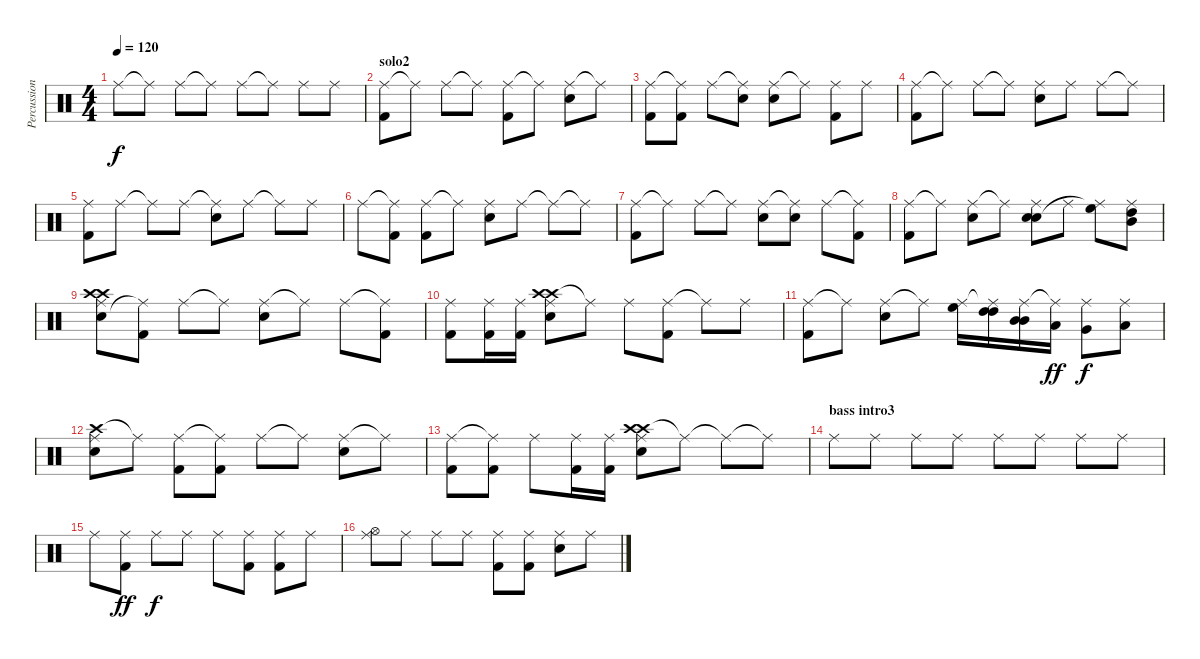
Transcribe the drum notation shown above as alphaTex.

\track ("Percussioni" "Percussion") {instrument percussion}
\staff {score}
\articulation defaults
\ts (4 4)
\tempo 120
\clef neutral
\ks c "Ride (middle)".8{dy f} "Ride (middle)"{t}.8 "Ride (middle)".8 "Ride (middle)"{t}.8 "Ride (middle)".8 "Ride (middle)"{t}.8 "Ride (middle)".8 "Ride (middle)".8
|
\section ("" "solo2")
("Ride (middle)" "Kick (hit) 2").8 "Ride (middle)"{t}.8 "Ride (middle)".8 "Ride (middle)"{t}.8 ("Ride (middle)" "Kick (hit) 2").8 "Ride (middle)"{t}.8 ("Ride (middle)" "Electric Snare (hit)").8 "Ride (middle)"{t}.8 |
("Ride (middle)" "Kick (hit) 2").8 ("Ride (middle)"{t} "Kick (hit) 2").8 "Ride (middle)".8 ("Ride (middle)"{t} "Electric Snare (hit)").8 ("Ride (middle)" "Electric Snare (hit)").8 "Ride (middle)"{t}.8 ("Ride (middle)" "Kick (hit) 2").8 "Ride (middle)".8 |
("Ride (middle)" "Kick (hit) 2").8 "Ride (middle)"{t}.8 "Ride (middle)".8 "Ride (middle)"{t}.8 ("Ride (middle)" "Electric Snare (hit)").8 "Ride (middle)".8 "Ride (middle)".8 "Ride (middle)"{t}.8 |
("Ride (middle)" "Kick (hit) 2").8 "Ride (middle)".8 "Ride (middle)"{t}.8 "Ride (middle)".8 ("Ride (middle)"{t} "Electric Snare (hit)").8 "Ride (middle)".8 "Ride (middle)"{t}.8 "Ride (middle)".8 |
"Ride (middle)".8 ("Ride (middle)"{t} "Kick (hit) 2").8 ("Ride (middle)" "Kick (hit) 2").8 "Ride (middle)"{t}.8 ("Ride (middle)" "Electric Snare (hit)").8 "Ride (middle)".8 "Ride (middle)"{t}.8 "Ride (middle)"{t}.8 |
("Ride (middle)" "Kick (hit) 2").8 "Ride (middle)"{t}.8 "Ride (middle)".8 "Ride (middle)"{t}.8 ("Ride (middle)" "Electric Snare (hit)").8 ("Ride (middle)"{t} "Electric Snare (hit)").8 "Ride (middle)".8 ("Ride (middle)"{t} "Kick (hit) 2").8 |
("Ride (middle)" "Kick (hit) 2").8 "Ride (middle)"{t}.8 ("Ride (middle)" "Electric Snare (hit)").8 "Ride (middle)"{t}.8 ("Ride (middle)" "Electric Snare (hit)" "Electric Snare (hit)").8{bu 30} "Ride (middle)".8 ("High Floor Tom (hit)" "Ride (middle)"{t}).8 ("Mid Tom (hit)" "High Tom (hit)" "Ride (middle)").8 |
("Metronome (bell)" "Crash high (hit)" "Crash high (hit)" "Ride (middle)").8 ("Ride (middle)"{t} "Kick (hit) 2").8 "Ride (middle)".8 "Ride (middle)"{t}.8 ("Ride (middle)" "Electric Snare (hit)").8 "Ride (middle)"{t}.8 "Ride (middle)".8 ("Ride (middle)"{t} "Kick (hit) 2").8 |
("Ride (middle)" "Kick (hit) 2").8 ("Ride (middle)" "Kick (hit) 2").16 ("Ride (middle)" "Kick (hit) 2").16 ("Crash high (hit)" "Crash high (hit)" "Ride (middle)" "Electric Snare (hit)").8 "Ride (middle)"{t}.8 "Ride (middle)".8 ("Ride (middle)" "Kick (hit) 2").8 "Ride (middle)"{t}.8 "Ride (middle)".8 |
("Ride (middle)" "Kick (hit) 2").8 "Ride (middle)"{t}.8 ("Ride (middle)" "Electric Snare (hit)").8 "Ride (middle)"{t}.8 ("Ride (middle)" "High Floor Tom (hit)").16 ("Ride (middle)"{t} "High Tom (hit)" "High Tom (hit)").16 ("Ride (middle)" "Mid Tom (hit)" "Mid Tom (hit)").16 ("Ride (middle)"{t} "Low Tom (hit)").16{dy ff} ("Ride (middle)" "Very Low Tom (hit)").8{dy f} ("Ride (middle)" "Low Floor Tom (hit)").8 |
("Crash high (hit)" "Ride (middle)" "Electric Snare (hit)").8 "Ride (middle)"{t}.8 ("Ride (middle)" "Kick (hit) 2").8 ("Ride (middle)"{t} "Kick (hit) 2").8 "Ride (middle)".8 "Ride (middle)"{t}.8 ("Ride (middle)" "Electric Snare (hit)").8 "Ride (middle)"{t}.8 |
("Ride (middle)" "Kick (hit) 2").8 ("Ride (middle)"{t} "Kick (hit) 2").8 "Ride (middle)".8 ("Ride (middle)" "Kick (hit) 2").16 ("Ride (middle)" "Kick (hit) 2").16 ("Crash high (hit)" "Crash high (hit)" "Ride (middle)" "Electric Snare (hit)").8 "Ride (middle)"{t}.8 "Ride (middle)"{t}.8 "Ride (middle)"{t}.8 |
\section ("" "bass intro3")
"Ride (middle)".8 "Ride (middle)".8 "Ride (middle)".8 "Ride (middle)".8 "Ride (middle)".8 "Ride (middle)".8 "Ride (middle)".8 "Ride (middle)".8 |
"Ride (middle)".8 ("Ride (middle)" "Kick (hit) 2").8{dy ff} "Ride (middle)".8{dy f} "Ride (middle)".8 "Ride (middle)".8 ("Ride (middle)" "Kick (hit) 2").8 ("Ride (middle)" "Kick (hit) 2").8 "Ride (middle)".8 |
("Ride (middle)" "Hi-Hat (open)").8 "Ride (middle)".8 "Ride (middle)".8 "Ride (middle)".8 ("Ride (middle)" "Kick (hit) 2").8 ("Ride (middle)" "Kick (hit) 2").8 ("Ride (middle)" "Electric Snare (hit)").8 "Ride (middle)".8
